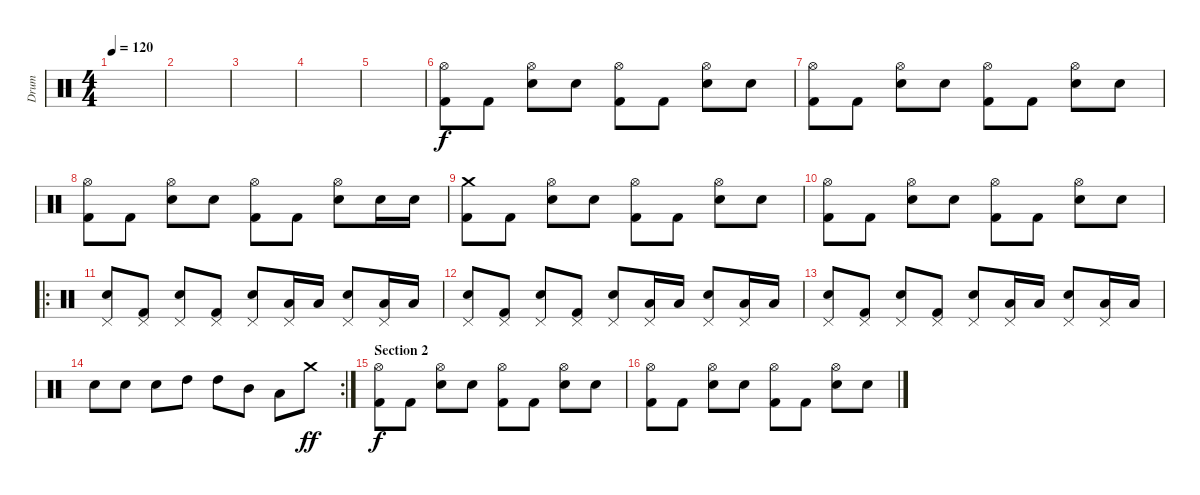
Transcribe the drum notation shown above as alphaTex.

\track ("Drum" "Drum") {instrument percussion}
\staff {score}
\articulation defaults
\ts (4 4)
\tempo 120
\clef neutral
\ks c
|
|
|
|
|
("Hi-Hat (open)" "Kick (hit) 2").8 "Kick (hit) 2".8 ("Hi-Hat (open)" "Electric Snare (hit)").8 "Electric Snare (hit)".8 ("Hi-Hat (open)" "Kick (hit) 2").8 "Kick (hit) 2".8 ("Hi-Hat (open)" "Electric Snare (hit)").8 "Electric Snare (hit)".8 |
("Hi-Hat (open)" "Kick (hit) 2").8 "Kick (hit) 2".8 ("Hi-Hat (open)" "Electric Snare (hit)").8 "Electric Snare (hit)".8 ("Hi-Hat (open)" "Kick (hit) 2").8 "Kick (hit) 2".8 ("Hi-Hat (open)" "Electric Snare (hit)").8 "Electric Snare (hit)".8 |
("Hi-Hat (open)" "Kick (hit) 2").8 "Kick (hit) 2".8 ("Hi-Hat (open)" "Electric Snare (hit)").8 "Electric Snare (hit)".8 ("Hi-Hat (open)" "Kick (hit) 2").8 "Kick (hit) 2".8 ("Hi-Hat (open)" "Electric Snare (hit)").8 "Electric Snare (hit)".16 "Electric Snare (hit)".16 |
("Crash medium (hit)" "Kick (hit) 2").8 "Kick (hit) 2".8 ("Hi-Hat (open)" "Electric Snare (hit)").8 "Electric Snare (hit)".8 ("Hi-Hat (open)" "Kick (hit) 2").8 "Kick (hit) 2".8 ("Hi-Hat (open)" "Electric Snare (hit)").8 "Electric Snare (hit)".8 |
("Hi-Hat (open)" "Kick (hit) 2").8 "Kick (hit) 2".8 ("Hi-Hat (open)" "Electric Snare (hit)").8 "Electric Snare (hit)".8 ("Hi-Hat (open)" "Kick (hit) 2").8 "Kick (hit) 2".8 ("Hi-Hat (open)" "Electric Snare (hit)").8 "Electric Snare (hit)".8 |
\ro
("Pedal Hi-Hat (hit)" "Electric Snare (hit)").8 ("Pedal Hi-Hat (hit)" "Kick (hit) 2").8 ("Pedal Hi-Hat (hit)" "Electric Snare (hit)").8 ("Pedal Hi-Hat (hit)" "Kick (hit) 2").8 ("Pedal Hi-Hat (hit)" "Electric Snare (hit)").8 ("Pedal Hi-Hat (hit)" "Low Tom (hit)").16 "Low Tom (hit)".16 ("Pedal Hi-Hat (hit)" "Electric Snare (hit)").8 ("Pedal Hi-Hat (hit)" "Low Tom (hit)").16 "Low Tom (hit)".16 |
("Pedal Hi-Hat (hit)" "Electric Snare (hit)").8 ("Pedal Hi-Hat (hit)" "Kick (hit) 2").8 ("Pedal Hi-Hat (hit)" "Electric Snare (hit)").8 ("Pedal Hi-Hat (hit)" "Kick (hit) 2").8 ("Pedal Hi-Hat (hit)" "Electric Snare (hit)").8 ("Pedal Hi-Hat (hit)" "Low Tom (hit)").16 "Low Tom (hit)".16 ("Pedal Hi-Hat (hit)" "Electric Snare (hit)").8 ("Pedal Hi-Hat (hit)" "Low Tom (hit)").16 "Low Tom (hit)".16 |
("Pedal Hi-Hat (hit)" "Electric Snare (hit)").8 ("Pedal Hi-Hat (hit)" "Kick (hit) 2").8 ("Pedal Hi-Hat (hit)" "Electric Snare (hit)").8 ("Pedal Hi-Hat (hit)" "Kick (hit) 2").8 ("Pedal Hi-Hat (hit)" "Electric Snare (hit)").8 ("Pedal Hi-Hat (hit)" "Low Tom (hit)").16 "Low Tom (hit)".16 ("Pedal Hi-Hat (hit)" "Electric Snare (hit)").8 ("Pedal Hi-Hat (hit)" "Low Tom (hit)").16 "Low Tom (hit)".16 |
\rc 2 "Electric Snare (hit)".8 "Electric Snare (hit)".8 "Electric Snare (hit)".8 "High Tom (hit)".8 "High Tom (hit)".8 "Mid Tom (hit)".8 "Low Tom (hit)".8 "Crash medium (hit)".8{dy ff}
|
\section ("" "Section 2")
("Hi-Hat (open)" "Kick (hit) 2").8{dy f} "Kick (hit) 2".8 ("Hi-Hat (open)" "Electric Snare (hit)").8 "Electric Snare (hit)".8 ("Hi-Hat (open)" "Kick (hit) 2").8 "Kick (hit) 2".8 ("Hi-Hat (open)" "Electric Snare (hit)").8 "Electric Snare (hit)".8 |
("Hi-Hat (open)" "Kick (hit) 2").8 "Kick (hit) 2".8 ("Hi-Hat (open)" "Electric Snare (hit)").8 "Electric Snare (hit)".8 ("Hi-Hat (open)" "Kick (hit) 2").8 "Kick (hit) 2".8 ("Hi-Hat (open)" "Electric Snare (hit)").8 "Electric Snare (hit)".8
